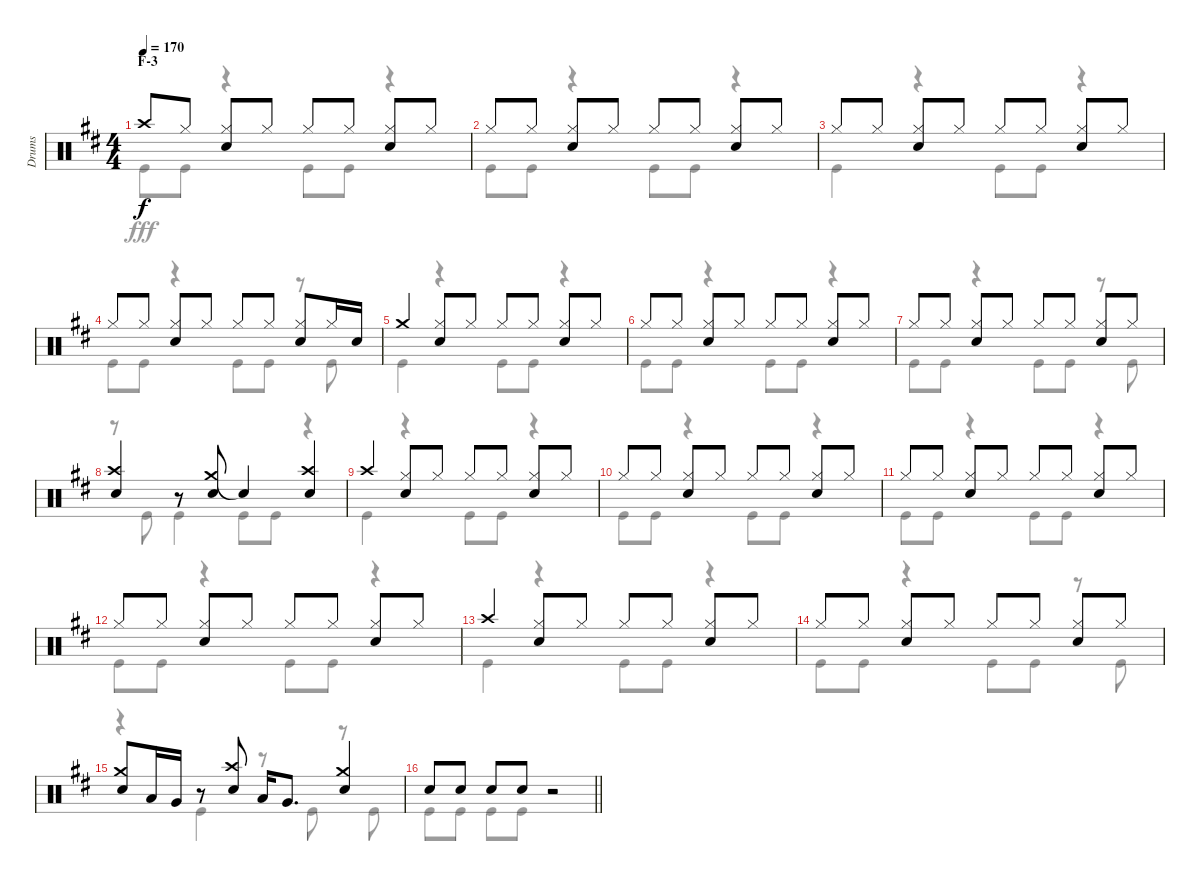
\track ("Drums" "Drums") {instrument percussion}
\staff {score}
\articulation defaults
\voice
\ts (4 4)
\section ("" "F-3")
\tempo 170
\clef neutral
\ks d "Crash high (hit)".8{dy f} "Hi-Hat (closed)".8
("Hi-Hat (closed)" "Snare (hit) 2").8 "Hi-Hat (closed)".8 "Hi-Hat (closed)".8 "Hi-Hat (closed)".8 ("Hi-Hat (closed)" "Snare (hit) 2").8 "Hi-Hat (closed)".8 |
"Hi-Hat (closed)".8 "Hi-Hat (closed)".8 ("Hi-Hat (closed)" "Snare (hit) 2").8 "Hi-Hat (closed)".8 "Hi-Hat (closed)".8 "Hi-Hat (closed)".8 ("Hi-Hat (closed)" "Snare (hit) 2").8 "Hi-Hat (closed)".8 |
"Hi-Hat (closed)".8 "Hi-Hat (closed)".8 ("Hi-Hat (closed)" "Snare (hit) 2").8 "Hi-Hat (closed)".8 "Hi-Hat (closed)".8 "Hi-Hat (closed)".8 ("Hi-Hat (closed)" "Snare (hit) 2").8 "Hi-Hat (closed)".8 |
"Hi-Hat (closed)".8 "Hi-Hat (closed)".8 ("Hi-Hat (closed)" "Snare (hit) 2").8 "Hi-Hat (closed)".8 "Hi-Hat (closed)".8 "Hi-Hat (closed)".8 ("Hi-Hat (closed)" "Snare (hit) 2").8 "Hi-Hat (closed)".16 "Snare (hit) 2".16 |
"Crash medium (hit)".4 ("Hi-Hat (closed)" "Snare (hit) 2").8 "Hi-Hat (closed)".8 "Hi-Hat (closed)".8 "Hi-Hat (closed)".8 ("Hi-Hat (closed)" "Snare (hit) 2").8 "Hi-Hat (closed)".8 |
"Hi-Hat (closed)".8 "Hi-Hat (closed)".8 ("Hi-Hat (closed)" "Snare (hit) 2").8 "Hi-Hat (closed)".8 "Hi-Hat (closed)".8 "Hi-Hat (closed)".8 ("Hi-Hat (closed)" "Snare (hit) 2").8 "Hi-Hat (closed)".8 |
"Hi-Hat (closed)".8 "Hi-Hat (closed)".8 ("Hi-Hat (closed)" "Snare (hit) 2").8 "Hi-Hat (closed)".8 "Hi-Hat (closed)".8 "Hi-Hat (closed)".8 ("Hi-Hat (closed)" "Snare (hit) 2").8 "Hi-Hat (closed)".8 |
("Crash high (hit)" "Snare (hit) 2").4 r.8 ("Crash medium (hit)" "Snare (hit) 2").8 "Snare (hit)"{t}.4 ("Crash high (hit)" "Snare (hit) 2").4 |
"Crash high (hit)".4 ("Hi-Hat (closed)" "Snare (hit) 2").8 "Hi-Hat (closed)".8 "Hi-Hat (closed)".8 "Hi-Hat (closed)".8 ("Hi-Hat (closed)" "Snare (hit) 2").8 "Hi-Hat (closed)".8 |
"Hi-Hat (closed)".8 "Hi-Hat (closed)".8 ("Hi-Hat (closed)" "Snare (hit) 2").8 "Hi-Hat (closed)".8 "Hi-Hat (closed)".8 "Hi-Hat (closed)".8 ("Hi-Hat (closed)" "Snare (hit) 2").8 "Hi-Hat (closed)".8 |
"Hi-Hat (closed)".8 "Hi-Hat (closed)".8 ("Hi-Hat (closed)" "Snare (hit) 2").8 "Hi-Hat (closed)".8 "Hi-Hat (closed)".8 "Hi-Hat (closed)".8 ("Hi-Hat (closed)" "Snare (hit) 2").8 "Hi-Hat (closed)".8 |
"Hi-Hat (closed)".8 "Hi-Hat (closed)".8 ("Hi-Hat (closed)" "Snare (hit) 2").8 "Hi-Hat (closed)".8 "Hi-Hat (closed)".8 "Hi-Hat (closed)".8 ("Hi-Hat (closed)" "Snare (hit) 2").8 "Hi-Hat (closed)".8 |
"Crash high (hit)".4 ("Hi-Hat (closed)" "Snare (hit) 2").8 "Hi-Hat (closed)".8 "Hi-Hat (closed)".8 "Hi-Hat (closed)".8 ("Hi-Hat (closed)" "Snare (hit) 2").8 "Hi-Hat (closed)".8 |
"Hi-Hat (closed)".8 "Hi-Hat (closed)".8 ("Hi-Hat (closed)" "Snare (hit) 2").8 "Hi-Hat (closed)".8 "Hi-Hat (closed)".8 "Hi-Hat (closed)".8 ("Hi-Hat (closed)" "Snare (hit) 2").8 "Hi-Hat (closed)".8 |
("Crash medium (hit)" "Snare (hit) 2").8 "Low Tom (hit)".16 "Very Low Tom (hit)".16 r.8 ("Crash high (hit)" "Snare (hit) 2").8 "Low Tom (hit)".16 "Very Low Tom (hit)".8{d} ("Crash medium (hit)" "Snare (hit) 2").4 |
\barLineRight lightlight "Snare (hit) 2".8 "Snare (hit) 2".8 "Snare (hit) 2".8 "Snare (hit) 2".8
r.2
\voice
\clef neutral
\ottava regular
\simile none
\ks d "Kick (hit)".8{dy fff} "Kick (hit)".8
r.4 "Kick (hit)".8 "Kick (hit)".8 r.4 |
"Kick (hit)".8 "Kick (hit)".8 r.4 "Kick (hit)".8 "Kick (hit)".8 r.4 |
"Kick (hit)".4 r.4 "Kick (hit)".8 "Kick (hit)".8 r.4 |
"Kick (hit)".8 "Kick (hit)".8 r.4 "Kick (hit)".8 "Kick (hit)".8 r.8 "Kick (hit)".8 |
"Kick (hit)".4 r.4 "Kick (hit)".8 "Kick (hit)".8 r.4 |
"Kick (hit)".8 "Kick (hit)".8 r.4 "Kick (hit)".8 "Kick (hit)".8 r.4 |
"Kick (hit)".8 "Kick (hit)".8 r.4 "Kick (hit)".8 "Kick (hit)".8 r.8 "Kick (hit)".8 |
r.8 "Kick (hit)".8 "Kick (hit)".4 "Kick (hit)".8 "Kick (hit)".8 r.4 |
"Kick (hit)".4 r.4 "Kick (hit)".8 "Kick (hit)".8 r.4 |
"Kick (hit)".8 "Kick (hit)".8 r.4 "Kick (hit)".8 "Kick (hit)".8 r.4 |
"Kick (hit)".8 "Kick (hit)".8 r.4 "Kick (hit)".8 "Kick (hit)".8 r.4 |
"Kick (hit)".8 "Kick (hit)".8 r.4 "Kick (hit)".8 "Kick (hit)".8 r.4 |
"Kick (hit)".4 r.4 "Kick (hit)".8 "Kick (hit)".8 r.4 |
"Kick (hit)".8 "Kick (hit)".8 r.4 "Kick (hit)".8 "Kick (hit)".8 r.8 "Kick (hit)".8 |
r.4 "Kick (hit)".4 r.8 "Kick (hit)".8 r.8 "Kick (hit)".8 |
\barLineRight lightlight "Kick (hit)".8 "Kick (hit)".8 "Kick (hit)".8 "Kick (hit)".8
r.2
